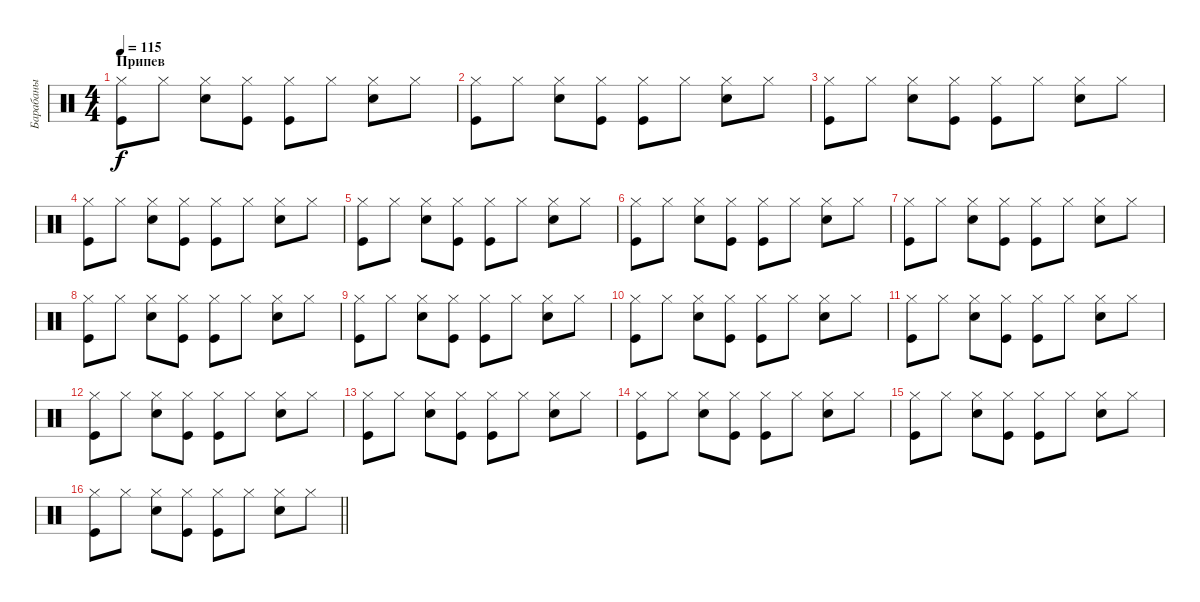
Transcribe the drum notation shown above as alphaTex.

\track ("Барабаны" "Барабаны") {instrument percussion}
\staff {score}
\articulation defaults
\ts (4 4)
\section ("" "Припев")
\tempo 115
\clef neutral
\ks c
("Kick (hit)" "Hi-Hat (closed)").8{dy f} "Hi-Hat (closed)".8 ("Snare (hit) 2" "Hi-Hat (closed)").8 ("Kick (hit)" "Hi-Hat (closed)").8 ("Kick (hit)" "Hi-Hat (closed)").8 "Hi-Hat (closed)".8 ("Snare (hit) 2" "Hi-Hat (closed)").8 "Hi-Hat (closed)".8 |
("Kick (hit)" "Hi-Hat (closed)").8 "Hi-Hat (closed)".8 ("Snare (hit) 2" "Hi-Hat (closed)").8 ("Kick (hit)" "Hi-Hat (closed)").8 ("Kick (hit)" "Hi-Hat (closed)").8 "Hi-Hat (closed)".8 ("Snare (hit) 2" "Hi-Hat (closed)").8 "Hi-Hat (closed)".8 |
("Kick (hit)" "Hi-Hat (closed)").8 "Hi-Hat (closed)".8 ("Snare (hit) 2" "Hi-Hat (closed)").8 ("Kick (hit)" "Hi-Hat (closed)").8 ("Kick (hit)" "Hi-Hat (closed)").8 "Hi-Hat (closed)".8 ("Snare (hit) 2" "Hi-Hat (closed)").8 "Hi-Hat (closed)".8 |
("Kick (hit)" "Hi-Hat (closed)").8 "Hi-Hat (closed)".8 ("Snare (hit) 2" "Hi-Hat (closed)").8 ("Kick (hit)" "Hi-Hat (closed)").8 ("Kick (hit)" "Hi-Hat (closed)").8 "Hi-Hat (closed)".8 ("Snare (hit) 2" "Hi-Hat (closed)").8 "Hi-Hat (closed)".8 |
("Kick (hit)" "Hi-Hat (closed)").8 "Hi-Hat (closed)".8 ("Snare (hit) 2" "Hi-Hat (closed)").8 ("Kick (hit)" "Hi-Hat (closed)").8 ("Kick (hit)" "Hi-Hat (closed)").8 "Hi-Hat (closed)".8 ("Snare (hit) 2" "Hi-Hat (closed)").8 "Hi-Hat (closed)".8 |
("Kick (hit)" "Hi-Hat (closed)").8 "Hi-Hat (closed)".8 ("Snare (hit) 2" "Hi-Hat (closed)").8 ("Kick (hit)" "Hi-Hat (closed)").8 ("Kick (hit)" "Hi-Hat (closed)").8 "Hi-Hat (closed)".8 ("Snare (hit) 2" "Hi-Hat (closed)").8 "Hi-Hat (closed)".8 |
("Kick (hit)" "Hi-Hat (closed)").8 "Hi-Hat (closed)".8 ("Snare (hit) 2" "Hi-Hat (closed)").8 ("Kick (hit)" "Hi-Hat (closed)").8 ("Kick (hit)" "Hi-Hat (closed)").8 "Hi-Hat (closed)".8 ("Snare (hit) 2" "Hi-Hat (closed)").8 "Hi-Hat (closed)".8 |
("Kick (hit)" "Hi-Hat (closed)").8 "Hi-Hat (closed)".8 ("Snare (hit) 2" "Hi-Hat (closed)").8 ("Kick (hit)" "Hi-Hat (closed)").8 ("Kick (hit)" "Hi-Hat (closed)").8 "Hi-Hat (closed)".8 ("Snare (hit) 2" "Hi-Hat (closed)").8 "Hi-Hat (closed)".8 |
("Kick (hit)" "Hi-Hat (closed)").8 "Hi-Hat (closed)".8 ("Snare (hit) 2" "Hi-Hat (closed)").8 ("Kick (hit)" "Hi-Hat (closed)").8 ("Kick (hit)" "Hi-Hat (closed)").8 "Hi-Hat (closed)".8 ("Snare (hit) 2" "Hi-Hat (closed)").8 "Hi-Hat (closed)".8 |
("Kick (hit)" "Hi-Hat (closed)").8 "Hi-Hat (closed)".8 ("Snare (hit) 2" "Hi-Hat (closed)").8 ("Kick (hit)" "Hi-Hat (closed)").8 ("Kick (hit)" "Hi-Hat (closed)").8 "Hi-Hat (closed)".8 ("Snare (hit) 2" "Hi-Hat (closed)").8 "Hi-Hat (closed)".8 |
("Kick (hit)" "Hi-Hat (closed)").8 "Hi-Hat (closed)".8 ("Snare (hit) 2" "Hi-Hat (closed)").8 ("Kick (hit)" "Hi-Hat (closed)").8 ("Kick (hit)" "Hi-Hat (closed)").8 "Hi-Hat (closed)".8 ("Snare (hit) 2" "Hi-Hat (closed)").8 "Hi-Hat (closed)".8 |
("Kick (hit)" "Hi-Hat (closed)").8 "Hi-Hat (closed)".8 ("Snare (hit) 2" "Hi-Hat (closed)").8 ("Kick (hit)" "Hi-Hat (closed)").8 ("Kick (hit)" "Hi-Hat (closed)").8 "Hi-Hat (closed)".8 ("Snare (hit) 2" "Hi-Hat (closed)").8 "Hi-Hat (closed)".8 |
("Kick (hit)" "Hi-Hat (closed)").8 "Hi-Hat (closed)".8 ("Snare (hit) 2" "Hi-Hat (closed)").8 ("Kick (hit)" "Hi-Hat (closed)").8 ("Kick (hit)" "Hi-Hat (closed)").8 "Hi-Hat (closed)".8 ("Snare (hit) 2" "Hi-Hat (closed)").8 "Hi-Hat (closed)".8 |
("Kick (hit)" "Hi-Hat (closed)").8 "Hi-Hat (closed)".8 ("Snare (hit) 2" "Hi-Hat (closed)").8 ("Kick (hit)" "Hi-Hat (closed)").8 ("Kick (hit)" "Hi-Hat (closed)").8 "Hi-Hat (closed)".8 ("Snare (hit) 2" "Hi-Hat (closed)").8 "Hi-Hat (closed)".8 |
("Kick (hit)" "Hi-Hat (closed)").8 "Hi-Hat (closed)".8 ("Snare (hit) 2" "Hi-Hat (closed)").8 ("Kick (hit)" "Hi-Hat (closed)").8 ("Kick (hit)" "Hi-Hat (closed)").8 "Hi-Hat (closed)".8 ("Snare (hit) 2" "Hi-Hat (closed)").8 "Hi-Hat (closed)".8 |
\barLineRight lightlight
("Kick (hit)" "Hi-Hat (closed)").8 "Hi-Hat (closed)".8 ("Snare (hit) 2" "Hi-Hat (closed)").8 ("Kick (hit)" "Hi-Hat (closed)").8 ("Kick (hit)" "Hi-Hat (closed)").8 "Hi-Hat (closed)".8 ("Snare (hit) 2" "Hi-Hat (closed)").8 "Hi-Hat (closed)".8
